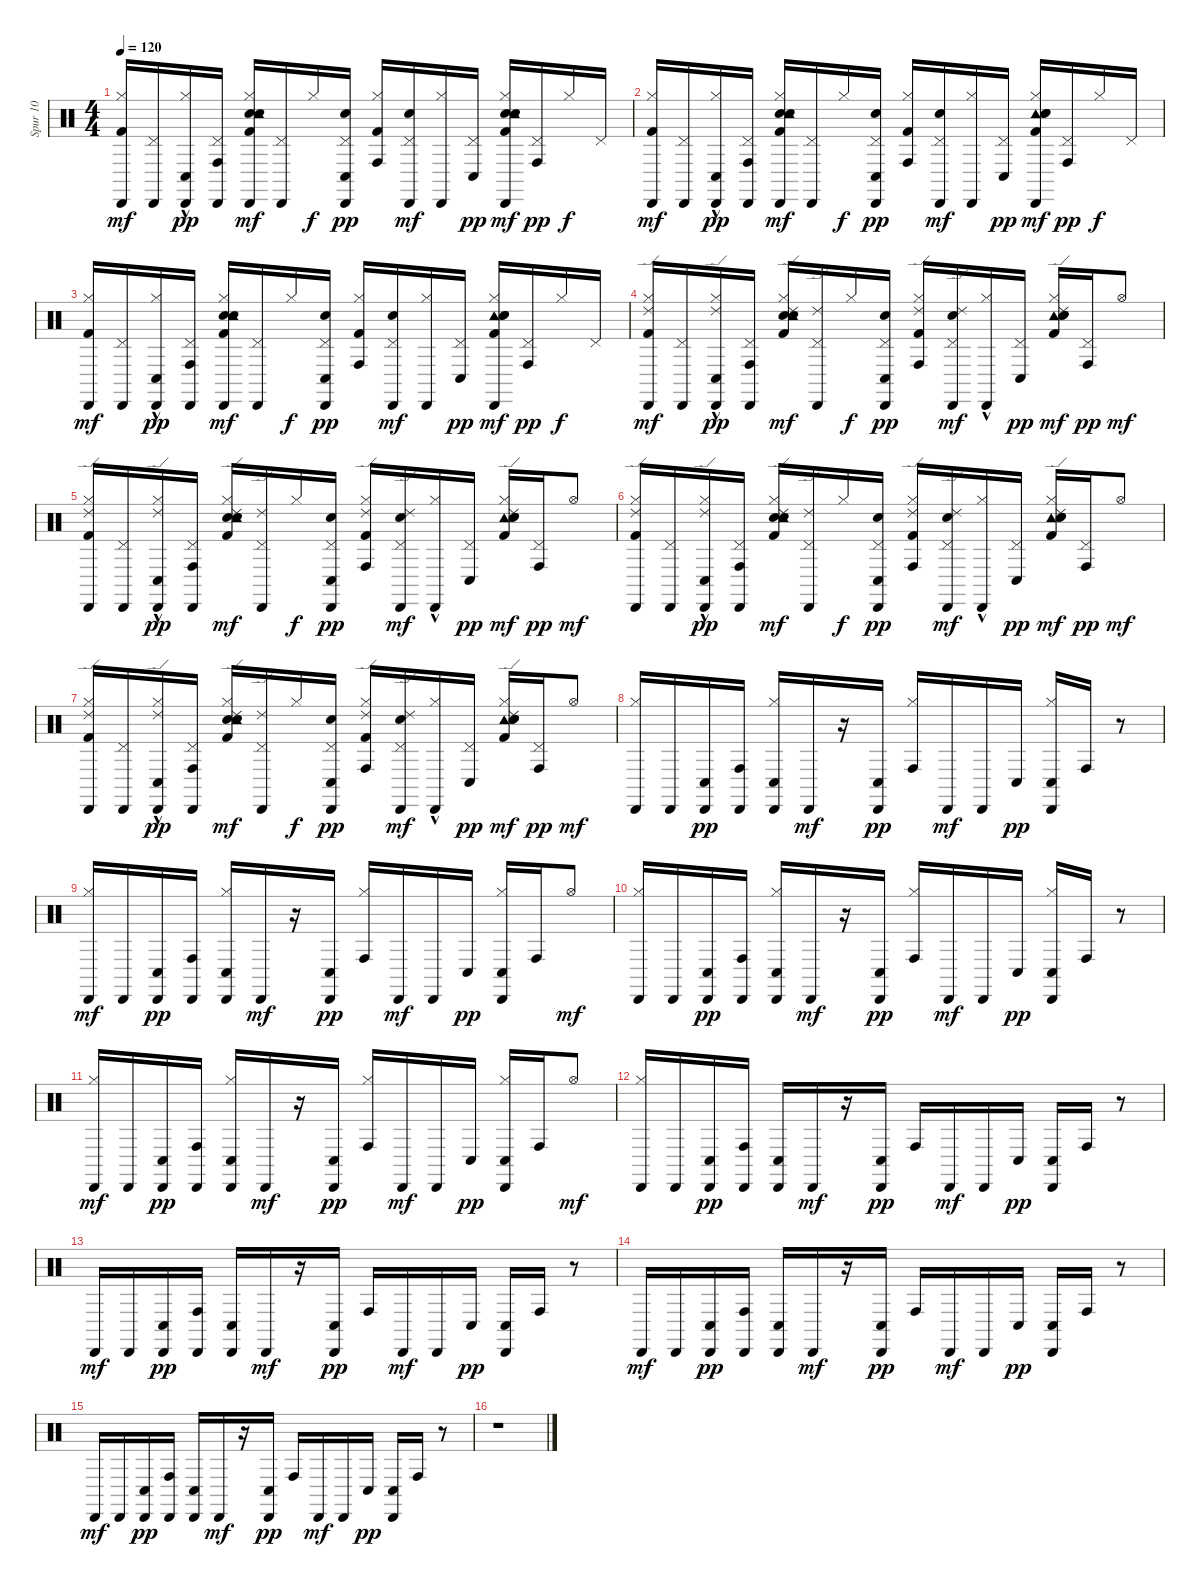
\track ("Spur 10" "Spur 10") {instrument percussion}
\staff {score}
\articulation defaults
\ts (4 4)
\tempo 120
\clef neutral
\ks c
("Kick (hit) 2" "Hi-Hat (closed)" "Cabasa (hit)").16{dy mf} ("Pedal Hi-Hat (hit)" "Cabasa (hit)").16 ("Hi-Hat (closed)" "Cabasa (hit)" "Conga low (hit)"{hac}).16{dy pp} ("Pedal Hi-Hat (hit)" "Cabasa (hit)" "Conga high (hit)").16 ("Kick (hit) 2" "Snare (hit) 2" "Tambourine (hit)" "Electric Snare (hit)" "Hi-Hat (closed)" "Cabasa (hit)").16{dy mf} ("Pedal Hi-Hat (hit)" "Cabasa (hit)").16 "Hi-Hat (closed)".16{dy f} ("Electric Snare (hit)" "Pedal Hi-Hat (hit)" "Cabasa (hit)" "Conga low (hit)").16{dy pp} ("Kick (hit) 2" "Hi-Hat (closed)" "Conga high (hit)").16 ("Electric Snare (hit)" "Pedal Hi-Hat (hit)" "Cabasa (hit)").16{dy mf} ("Hi-Hat (closed)" "Cabasa (hit)").16 ("Pedal Hi-Hat (hit)" "Conga low (hit)").16{dy pp} ("Electric Snare (hit)" "Kick (hit) 2" "Tambourine (hit)" "Snare (hit) 2" "Hi-Hat (closed)" "Cabasa (hit)").16{dy mf} ("Pedal Hi-Hat (hit)" "Conga high (hit)").16{dy pp} "Hi-Hat (closed)".16{dy f} "Pedal Hi-Hat (hit)".16 |
("Kick (hit) 2" "Hi-Hat (closed)" "Cabasa (hit)").16{dy mf} ("Pedal Hi-Hat (hit)" "Cabasa (hit)").16 ("Hi-Hat (closed)" "Cabasa (hit)" "Conga low (hit)"{hac}).16{dy pp} ("Pedal Hi-Hat (hit)" "Cabasa (hit)" "Conga high (hit)").16 ("Kick (hit) 2" "Snare (hit) 2" "Tambourine (hit)" "Electric Snare (hit)" "Hi-Hat (closed)" "Cabasa (hit)").16{dy mf} ("Pedal Hi-Hat (hit)" "Cabasa (hit)").16 "Hi-Hat (closed)".16{dy f} ("Electric Snare (hit)" "Pedal Hi-Hat (hit)" "Cabasa (hit)" "Conga low (hit)").16{dy pp} ("Kick (hit) 2" "Hi-Hat (closed)" "Conga high (hit)").16 ("Electric Snare (hit)" "Pedal Hi-Hat (hit)" "Cabasa (hit)").16{dy mf} ("Hi-Hat (closed)" "Cabasa (hit)").16 ("Pedal Hi-Hat (hit)" "Conga low (hit)").16{dy pp} ("Tambourine (hit)" "Electric Snare (hit)" "Snare (hit) 2" "Kick (hit) 2" "Hi-Hat (closed)" "Cabasa (hit)").16{dy mf} ("Pedal Hi-Hat (hit)" "Conga high (hit)").16{dy pp} "Hi-Hat (closed)".16{dy f} "Pedal Hi-Hat (hit)".16 |
("Kick (hit) 2" "Hi-Hat (closed)" "Cabasa (hit)").16{dy mf} ("Pedal Hi-Hat (hit)" "Cabasa (hit)").16 ("Hi-Hat (closed)" "Cabasa (hit)" "Conga low (hit)"{hac}).16{dy pp} ("Pedal Hi-Hat (hit)" "Cabasa (hit)" "Conga high (hit)").16 ("Snare (hit) 2" "Kick (hit) 2" "Tambourine (hit)" "Electric Snare (hit)" "Hi-Hat (closed)" "Cabasa (hit)").16{dy mf} ("Pedal Hi-Hat (hit)" "Cabasa (hit)").16 "Hi-Hat (closed)".16{dy f} ("Electric Snare (hit)" "Pedal Hi-Hat (hit)" "Cabasa (hit)" "Conga low (hit)").16{dy pp} ("Kick (hit) 2" "Hi-Hat (closed)" "Conga high (hit)").16 ("Electric Snare (hit)" "Pedal Hi-Hat (hit)" "Cabasa (hit)").16{dy mf} ("Hi-Hat (closed)" "Cabasa (hit)").16 ("Pedal Hi-Hat (hit)" "Conga low (hit)").16{dy pp} ("Kick (hit) 2" "Tambourine (hit)" "Snare (hit) 2" "Electric Snare (hit)" "Hi-Hat (closed)" "Cabasa (hit)").16{dy mf} ("Pedal Hi-Hat (hit)" "Conga high (hit)").16{dy pp} "Hi-Hat (closed)".16{dy f} "Pedal Hi-Hat (hit)".16 |
("Kick (hit) 2" "Hi-Hat (closed)" "Ride (edge) 2" "Cabasa (hit)").16{dy mf} ("Pedal Hi-Hat (hit)" "Cabasa (hit)").16 ("Hi-Hat (closed)" "Ride (edge) 2" "Cabasa (hit)" "Conga low (hit)"{hac}).16{dy pp} ("Pedal Hi-Hat (hit)" "Cabasa (hit)" "Conga high (hit)").16 ("Snare (hit) 2" "Kick (hit) 2" "Tambourine (hit)" "Electric Snare (hit)" "Hi-Hat (closed)" "Ride (edge) 2").16{dy mf} ("Pedal Hi-Hat (hit)" "Ride (edge) 2" "Cabasa (hit)").16 "Hi-Hat (closed)".16{dy f} ("Electric Snare (hit)" "Pedal Hi-Hat (hit)" "Cabasa (hit)" "Conga low (hit)").16{dy pp} ("Kick (hit) 2" "Hi-Hat (closed)" "Ride (edge) 2" "Conga high (hit)").16 ("Electric Snare (hit)" "Pedal Hi-Hat (hit)" "Ride (edge) 2" "Cabasa (hit)").16{dy mf} ("Hi-Hat (closed)" "Cabasa (hit)"{hac}).16 ("Pedal Hi-Hat (hit)" "Conga low (hit)").16{dy pp} ("Kick (hit) 2" "Tambourine (hit)" "Snare (hit) 2" "Electric Snare (hit)" "Hi-Hat (closed)" "Ride (edge) 2").16{dy mf} ("Pedal Hi-Hat (hit)" "Conga high (hit)").16{dy pp} "Hi-Hat (open)".8{dy mf} |
("Kick (hit) 2" "Hi-Hat (closed)" "Ride (edge) 2" "Cabasa (hit)").16 ("Pedal Hi-Hat (hit)" "Cabasa (hit)").16 ("Hi-Hat (closed)" "Ride (edge) 2" "Cabasa (hit)" "Conga low (hit)"{hac}).16{dy pp} ("Pedal Hi-Hat (hit)" "Cabasa (hit)" "Conga high (hit)").16 ("Snare (hit) 2" "Kick (hit) 2" "Tambourine (hit)" "Electric Snare (hit)" "Hi-Hat (closed)" "Ride (edge) 2").16{dy mf} ("Pedal Hi-Hat (hit)" "Ride (edge) 2" "Cabasa (hit)").16 "Hi-Hat (closed)".16{dy f} ("Electric Snare (hit)" "Pedal Hi-Hat (hit)" "Cabasa (hit)" "Conga low (hit)").16{dy pp} ("Kick (hit) 2" "Hi-Hat (closed)" "Ride (edge) 2" "Conga high (hit)").16 ("Electric Snare (hit)" "Pedal Hi-Hat (hit)" "Ride (edge) 2" "Cabasa (hit)").16{dy mf} ("Hi-Hat (closed)" "Cabasa (hit)"{hac}).16 ("Pedal Hi-Hat (hit)" "Conga low (hit)").16{dy pp} ("Kick (hit) 2" "Tambourine (hit)" "Snare (hit) 2" "Electric Snare (hit)" "Hi-Hat (closed)" "Ride (edge) 2").16{dy mf} ("Pedal Hi-Hat (hit)" "Conga high (hit)").16{dy pp} "Hi-Hat (open)".8{dy mf} |
("Kick (hit) 2" "Hi-Hat (closed)" "Ride (edge) 2" "Cabasa (hit)").16 ("Pedal Hi-Hat (hit)" "Cabasa (hit)").16 ("Hi-Hat (closed)" "Ride (edge) 2" "Cabasa (hit)" "Conga low (hit)"{hac}).16{dy pp} ("Pedal Hi-Hat (hit)" "Cabasa (hit)" "Conga high (hit)").16 ("Snare (hit) 2" "Kick (hit) 2" "Tambourine (hit)" "Electric Snare (hit)" "Hi-Hat (closed)" "Ride (edge) 2").16{dy mf} ("Pedal Hi-Hat (hit)" "Ride (edge) 2" "Cabasa (hit)").16 "Hi-Hat (closed)".16{dy f} ("Electric Snare (hit)" "Pedal Hi-Hat (hit)" "Cabasa (hit)" "Conga low (hit)").16{dy pp} ("Kick (hit) 2" "Hi-Hat (closed)" "Ride (edge) 2" "Conga high (hit)").16 ("Electric Snare (hit)" "Pedal Hi-Hat (hit)" "Ride (edge) 2" "Cabasa (hit)").16{dy mf} ("Hi-Hat (closed)" "Cabasa (hit)"{hac}).16 ("Pedal Hi-Hat (hit)" "Conga low (hit)").16{dy pp} ("Kick (hit) 2" "Tambourine (hit)" "Snare (hit) 2" "Electric Snare (hit)" "Hi-Hat (closed)" "Ride (edge) 2").16{dy mf} ("Pedal Hi-Hat (hit)" "Conga high (hit)").16{dy pp} "Hi-Hat (open)".8{dy mf} |
("Kick (hit) 2" "Hi-Hat (closed)" "Ride (edge) 2" "Cabasa (hit)").16 ("Pedal Hi-Hat (hit)" "Cabasa (hit)").16 ("Hi-Hat (closed)" "Ride (edge) 2" "Cabasa (hit)" "Conga low (hit)"{hac}).16{dy pp} ("Pedal Hi-Hat (hit)" "Cabasa (hit)" "Conga high (hit)").16 ("Snare (hit) 2" "Kick (hit) 2" "Tambourine (hit)" "Electric Snare (hit)" "Hi-Hat (closed)" "Ride (edge) 2").16{dy mf} ("Pedal Hi-Hat (hit)" "Ride (edge) 2" "Cabasa (hit)").16 "Hi-Hat (closed)".16{dy f} ("Electric Snare (hit)" "Pedal Hi-Hat (hit)" "Cabasa (hit)" "Conga low (hit)").16{dy pp} ("Kick (hit) 2" "Hi-Hat (closed)" "Ride (edge) 2" "Conga high (hit)").16 ("Electric Snare (hit)" "Pedal Hi-Hat (hit)" "Ride (edge) 2" "Cabasa (hit)").16{dy mf} ("Hi-Hat (closed)" "Cabasa (hit)"{hac}).16 ("Pedal Hi-Hat (hit)" "Conga low (hit)").16{dy pp} ("Kick (hit) 2" "Tambourine (hit)" "Snare (hit) 2" "Electric Snare (hit)" "Hi-Hat (closed)" "Ride (edge) 2").16{dy mf} ("Pedal Hi-Hat (hit)" "Conga high (hit)").16{dy pp} "Hi-Hat (open)".8{dy mf} |
("Hi-Hat (closed)" "Cabasa (hit)").16 "Cabasa (hit)".16 ("Cabasa (hit)" "Conga low (hit)").16{dy pp} ("Cabasa (hit)" "Conga high (hit)").16 ("Hi-Hat (closed)" "Cabasa (hit)" "Conga low (hit)").16 "Cabasa (hit)".16{dy mf} r.16 ("Cabasa (hit)" "Conga low (hit)").16{dy pp} ("Hi-Hat (closed)" "Conga high (hit)").16 "Cabasa (hit)".16{dy mf} "Cabasa (hit)".16 "Conga low (hit)".16{dy pp} ("Hi-Hat (closed)" "Cabasa (hit)" "Conga low (hit)").16 "Conga high (hit)".16 r.8 |
("Hi-Hat (closed)" "Cabasa (hit)").16{dy mf} "Cabasa (hit)".16 ("Cabasa (hit)" "Conga low (hit)").16{dy pp} ("Cabasa (hit)" "Conga high (hit)").16 ("Hi-Hat (closed)" "Cabasa (hit)" "Conga low (hit)").16 "Cabasa (hit)".16{dy mf} r.16 ("Cabasa (hit)" "Conga low (hit)").16{dy pp} ("Hi-Hat (closed)" "Conga high (hit)").16 "Cabasa (hit)".16{dy mf} "Cabasa (hit)".16 "Conga low (hit)".16{dy pp} ("Hi-Hat (closed)" "Cabasa (hit)" "Conga low (hit)").16 "Conga high (hit)".16 "Hi-Hat (open)".8{dy mf} |
("Hi-Hat (closed)" "Cabasa (hit)").16 "Cabasa (hit)".16 ("Cabasa (hit)" "Conga low (hit)").16{dy pp} ("Cabasa (hit)" "Conga high (hit)").16 ("Hi-Hat (closed)" "Cabasa (hit)" "Conga low (hit)").16 "Cabasa (hit)".16{dy mf} r.16 ("Cabasa (hit)" "Conga low (hit)").16{dy pp} ("Hi-Hat (closed)" "Conga high (hit)").16 "Cabasa (hit)".16{dy mf} "Cabasa (hit)".16 "Conga low (hit)".16{dy pp} ("Hi-Hat (closed)" "Cabasa (hit)" "Conga low (hit)").16 "Conga high (hit)".16 r.8 |
("Hi-Hat (closed)" "Cabasa (hit)").16{dy mf} "Cabasa (hit)".16 ("Cabasa (hit)" "Conga low (hit)").16{dy pp} ("Cabasa (hit)" "Conga high (hit)").16 ("Hi-Hat (closed)" "Cabasa (hit)" "Conga low (hit)").16 "Cabasa (hit)".16{dy mf} r.16 ("Cabasa (hit)" "Conga low (hit)").16{dy pp} ("Hi-Hat (closed)" "Conga high (hit)").16 "Cabasa (hit)".16{dy mf} "Cabasa (hit)".16 "Conga low (hit)".16{dy pp} ("Hi-Hat (closed)" "Cabasa (hit)" "Conga low (hit)").16 "Conga high (hit)".16 "Hi-Hat (open)".8{dy mf} |
("Hi-Hat (closed)" "Cabasa (hit)").16 "Cabasa (hit)".16 ("Cabasa (hit)" "Conga low (hit)").16{dy pp} ("Cabasa (hit)" "Conga high (hit)").16 ("Cabasa (hit)" "Conga low (hit)").16 "Cabasa (hit)".16{dy mf} r.16 ("Cabasa (hit)" "Conga low (hit)").16{dy pp} "Conga high (hit)".16 "Cabasa (hit)".16{dy mf} "Cabasa (hit)".16 "Conga low (hit)".16{dy pp} ("Cabasa (hit)" "Conga low (hit)").16 "Conga high (hit)".16 r.8 |
"Cabasa (hit)".16{dy mf} "Cabasa (hit)".16 ("Cabasa (hit)" "Conga low (hit)").16{dy pp} ("Cabasa (hit)" "Conga high (hit)").16 ("Cabasa (hit)" "Conga low (hit)").16 "Cabasa (hit)".16{dy mf} r.16 ("Cabasa (hit)" "Conga low (hit)").16{dy pp} "Conga high (hit)".16 "Cabasa (hit)".16{dy mf} "Cabasa (hit)".16 "Conga low (hit)".16{dy pp} ("Cabasa (hit)" "Conga low (hit)").16 "Conga high (hit)".16 r.8 |
"Cabasa (hit)".16{dy mf} "Cabasa (hit)".16 ("Cabasa (hit)" "Conga low (hit)").16{dy pp} ("Cabasa (hit)" "Conga high (hit)").16 ("Cabasa (hit)" "Conga low (hit)").16 "Cabasa (hit)".16{dy mf} r.16 ("Cabasa (hit)" "Conga low (hit)").16{dy pp} "Conga high (hit)".16 "Cabasa (hit)".16{dy mf} "Cabasa (hit)".16 "Conga low (hit)".16{dy pp} ("Cabasa (hit)" "Conga low (hit)").16 "Conga high (hit)".16 r.8 |
"Cabasa (hit)".16{dy mf} "Cabasa (hit)".16 ("Cabasa (hit)" "Conga low (hit)").16{dy pp} ("Cabasa (hit)" "Conga high (hit)").16 ("Cabasa (hit)" "Conga low (hit)").16 "Cabasa (hit)".16{dy mf} r.16 ("Cabasa (hit)" "Conga low (hit)").16{dy pp} "Conga high (hit)".16 "Cabasa (hit)".16{dy mf} "Cabasa (hit)".16 "Conga low (hit)".16{dy pp} ("Cabasa (hit)" "Conga low (hit)").16 "Conga high (hit)".16 r.8 |
r.1
